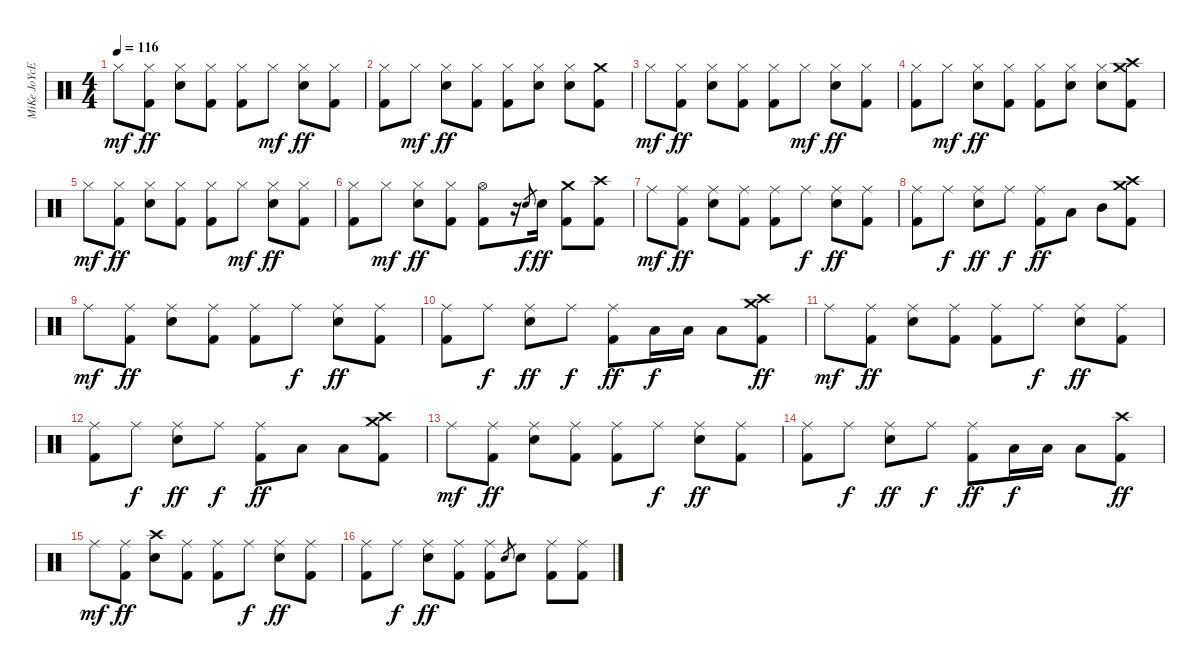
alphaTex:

\track ("MiKe JoYcE" "MiKe JoYcE") {instrument percussion}
\staff {score}
\articulation defaults
\ts (4 4)
\tempo 116
\clef neutral
\ks c "Hi-Hat (closed)".8{dy mf}
("Hi-Hat (closed)" "Kick (hit) 2").8{dy ff} ("Hi-Hat (closed)" "Electric Snare (hit)").8 ("Hi-Hat (closed)" "Kick (hit) 2").8 ("Hi-Hat (closed)" "Kick (hit) 2").8 "Hi-Hat (closed)".8{dy mf} ("Hi-Hat (closed)" "Electric Snare (hit)").8{dy ff} ("Hi-Hat (closed)" "Kick (hit) 2").8 |
("Hi-Hat (closed)" "Kick (hit) 2").8 "Hi-Hat (closed)".8{dy mf} ("Hi-Hat (closed)" "Electric Snare (hit)").8{dy ff} ("Hi-Hat (closed)" "Kick (hit) 2").8 ("Hi-Hat (closed)" "Kick (hit) 2").8 ("Hi-Hat (closed)" "Electric Snare (hit)").8 ("Hi-Hat (closed)" "Electric Snare (hit)").8 ("Crash medium (hit)" "Kick (hit) 2").8 |
"Hi-Hat (closed)".8{dy mf} ("Hi-Hat (closed)" "Kick (hit) 2").8{dy ff} ("Hi-Hat (closed)" "Electric Snare (hit)").8 ("Hi-Hat (closed)" "Kick (hit) 2").8 ("Hi-Hat (closed)" "Kick (hit) 2").8 "Hi-Hat (closed)".8{dy mf} ("Hi-Hat (closed)" "Electric Snare (hit)").8{dy ff} ("Hi-Hat (closed)" "Kick (hit) 2").8 |
("Hi-Hat (closed)" "Kick (hit) 2").8 "Hi-Hat (closed)".8{dy mf} ("Hi-Hat (closed)" "Electric Snare (hit)").8{dy ff} ("Hi-Hat (closed)" "Kick (hit) 2").8 ("Hi-Hat (closed)" "Kick (hit) 2").8 ("Hi-Hat (closed)" "Electric Snare (hit)").8 ("Hi-Hat (closed)" "Electric Snare (hit)").8 ("Crash high (hit)" "Crash medium (hit)" "Kick (hit) 2").8 |
"Hi-Hat (closed)".8{dy mf} ("Hi-Hat (closed)" "Kick (hit) 2").8{dy ff} ("Hi-Hat (closed)" "Electric Snare (hit)").8 ("Hi-Hat (closed)" "Kick (hit) 2").8 ("Hi-Hat (closed)" "Kick (hit) 2").8 "Hi-Hat (closed)".8{dy mf} ("Hi-Hat (closed)" "Electric Snare (hit)").8{dy ff} ("Hi-Hat (closed)" "Kick (hit) 2").8 |
("Hi-Hat (closed)" "Kick (hit) 2").8 "Hi-Hat (closed)".8{dy mf} ("Hi-Hat (closed)" "Electric Snare (hit)").8{dy ff} ("Hi-Hat (closed)" "Kick (hit) 2").8 ("Hi-Hat (open)" "Kick (hit) 2").8 r.16 "Electric Snare (hit)".8{gr dy f} "Electric Snare (hit)".16{dy ff} ("Crash medium (hit)" "Kick (hit) 2").8 ("Crash high (hit)" "Kick (hit) 2").8 |
"Ride (middle)".8{dy mf} ("Ride (middle)" "Kick (hit) 2").8{dy ff} ("Ride (middle)" "Electric Snare (hit)").8 ("Ride (middle)" "Kick (hit) 2").8 ("Ride (middle)" "Kick (hit) 2").8 "Ride (middle)".8{dy f} ("Ride (middle)" "Electric Snare (hit)").8{dy ff} ("Ride (middle)" "Kick (hit) 2").8 |
("Ride (middle)" "Kick (hit) 2").8 "Ride (middle)".8{dy f} ("Ride (middle)" "Electric Snare (hit)").8{dy ff} "Ride (middle)".8{dy f} ("Ride (middle)" "Kick (hit) 2").8{dy ff} "Low Tom (hit)".8 "Mid Tom (hit)".8 ("Crash high (hit)" "Crash medium (hit)" "Kick (hit) 2").8 |
"Ride (middle)".8{dy mf} ("Ride (middle)" "Kick (hit) 2").8{dy ff} ("Ride (middle)" "Electric Snare (hit)").8 ("Ride (middle)" "Kick (hit) 2").8 ("Ride (middle)" "Kick (hit) 2").8 "Ride (middle)".8{dy f} ("Ride (middle)" "Electric Snare (hit)").8{dy ff} ("Ride (middle)" "Kick (hit) 2").8 |
("Ride (middle)" "Kick (hit) 2").8 "Ride (middle)".8{dy f} ("Ride (middle)" "Electric Snare (hit)").8{dy ff} "Ride (middle)".8{dy f} ("Ride (middle)" "Kick (hit) 2").8{dy ff} "Low Tom (hit)".16{dy f} "Low Tom (hit)".16 "Low Floor Tom (hit)".8 ("Crash medium (hit)" "Crash high (hit)" "Kick (hit) 2").8{dy ff} |
"Ride (middle)".8{dy mf} ("Ride (middle)" "Kick (hit) 2").8{dy ff} ("Ride (middle)" "Electric Snare (hit)").8 ("Ride (middle)" "Kick (hit) 2").8 ("Ride (middle)" "Kick (hit) 2").8 "Ride (middle)".8{dy f} ("Ride (middle)" "Electric Snare (hit)").8{dy ff} ("Ride (middle)" "Kick (hit) 2").8 |
("Ride (middle)" "Kick (hit) 2").8 "Ride (middle)".8{dy f} ("Ride (middle)" "Electric Snare (hit)").8{dy ff} "Ride (middle)".8{dy f} ("Ride (middle)" "Kick (hit) 2").8{dy ff} "Low Tom (hit)".8 "Low Floor Tom (hit)".8 ("Crash high (hit)" "Crash medium (hit)" "Kick (hit) 2").8 |
"Ride (middle)".8{dy mf} ("Ride (middle)" "Kick (hit) 2").8{dy ff} ("Ride (middle)" "Electric Snare (hit)").8 ("Ride (middle)" "Kick (hit) 2").8 ("Ride (middle)" "Kick (hit) 2").8 "Ride (middle)".8{dy f} ("Ride (middle)" "Electric Snare (hit)").8{dy ff} ("Ride (middle)" "Kick (hit) 2").8 |
("Ride (middle)" "Kick (hit) 2").8 "Ride (middle)".8{dy f} ("Ride (middle)" "Electric Snare (hit)").8{dy ff} "Ride (middle)".8{dy f} ("Ride (middle)" "Kick (hit) 2").8{dy ff} "Low Tom (hit)".16{dy f} "Low Tom (hit)".16 "Low Floor Tom (hit)".8 ("Crash high (hit)" "Kick (hit) 2").8{dy ff} |
"Ride (middle)".8{dy mf} ("Ride (middle)" "Kick (hit) 2").8{dy ff} ("Crash high (hit)" "Electric Snare (hit)").8 ("Ride (middle)" "Kick (hit) 2").8 ("Ride (middle)" "Kick (hit) 2").8 "Ride (middle)".8{dy f} ("Ride (middle)" "Electric Snare (hit)").8{dy ff} ("Ride (middle)" "Kick (hit) 2").8 |
("Ride (middle)" "Kick (hit) 2").8 "Ride (middle)".8{dy f} ("Ride (middle)" "Electric Snare (hit)").8{dy ff} ("Ride (middle)" "Kick (hit) 2").8 ("Ride (middle)" "Kick (hit) 2").8 "Electric Snare (hit)".8{gr} "Electric Snare (hit)".8 ("Ride (middle)" "Kick (hit) 2").8 ("Ride (middle)" "Kick (hit) 2").8
